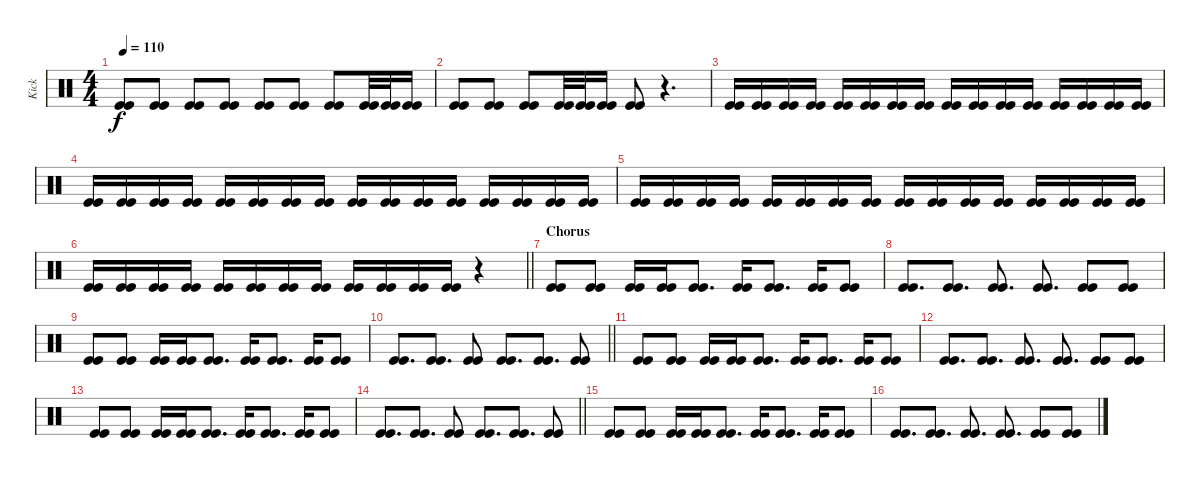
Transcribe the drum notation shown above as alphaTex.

\track ("Kick" "Kick") {instrument percussion}
\staff {score}
\articulation defaults
\ts (4 4)
\tempo 110
\clef neutral
\ks c
("Kick (hit)" "Kick (hit)").8{dy f} ("Kick (hit)" "Kick (hit)").8 ("Kick (hit)" "Kick (hit)").8 ("Kick (hit)" "Kick (hit)").8 ("Kick (hit)" "Kick (hit)").8 ("Kick (hit)" "Kick (hit)").8 ("Kick (hit)" "Kick (hit)").8 ("Kick (hit)" "Kick (hit)").32 ("Kick (hit)" "Kick (hit)").32 ("Kick (hit)" "Kick (hit)").16 |
("Kick (hit)" "Kick (hit)").8 ("Kick (hit)" "Kick (hit)").8 ("Kick (hit)" "Kick (hit)").8 ("Kick (hit)" "Kick (hit)").32 ("Kick (hit)" "Kick (hit)").32 ("Kick (hit)" "Kick (hit)").16 ("Kick (hit)" "Kick (hit)").8 r.4{d} |
("Kick (hit)" "Kick (hit)").16 ("Kick (hit)" "Kick (hit)").16 ("Kick (hit)" "Kick (hit)").16 ("Kick (hit)" "Kick (hit)").16 ("Kick (hit)" "Kick (hit)").16 ("Kick (hit)" "Kick (hit)").16 ("Kick (hit)" "Kick (hit)").16 ("Kick (hit)" "Kick (hit)").16 ("Kick (hit)" "Kick (hit)").16 ("Kick (hit)" "Kick (hit)").16 ("Kick (hit)" "Kick (hit)").16 ("Kick (hit)" "Kick (hit)").16 ("Kick (hit)" "Kick (hit)").16 ("Kick (hit)" "Kick (hit)").16 ("Kick (hit)" "Kick (hit)").16 ("Kick (hit)" "Kick (hit)").16 |
("Kick (hit)" "Kick (hit)").16 ("Kick (hit)" "Kick (hit)").16 ("Kick (hit)" "Kick (hit)").16 ("Kick (hit)" "Kick (hit)").16 ("Kick (hit)" "Kick (hit)").16 ("Kick (hit)" "Kick (hit)").16 ("Kick (hit)" "Kick (hit)").16 ("Kick (hit)" "Kick (hit)").16 ("Kick (hit)" "Kick (hit)").16 ("Kick (hit)" "Kick (hit)").16 ("Kick (hit)" "Kick (hit)").16 ("Kick (hit)" "Kick (hit)").16 ("Kick (hit)" "Kick (hit)").16 ("Kick (hit)" "Kick (hit)").16 ("Kick (hit)" "Kick (hit)").16 ("Kick (hit)" "Kick (hit)").16 |
("Kick (hit)" "Kick (hit)").16 ("Kick (hit)" "Kick (hit)").16 ("Kick (hit)" "Kick (hit)").16 ("Kick (hit)" "Kick (hit)").16 ("Kick (hit)" "Kick (hit)").16 ("Kick (hit)" "Kick (hit)").16 ("Kick (hit)" "Kick (hit)").16 ("Kick (hit)" "Kick (hit)").16 ("Kick (hit)" "Kick (hit)").16 ("Kick (hit)" "Kick (hit)").16 ("Kick (hit)" "Kick (hit)").16 ("Kick (hit)" "Kick (hit)").16 ("Kick (hit)" "Kick (hit)").16 ("Kick (hit)" "Kick (hit)").16 ("Kick (hit)" "Kick (hit)").16 ("Kick (hit)" "Kick (hit)").16 |
\barLineRight lightlight
("Kick (hit)" "Kick (hit)").16 ("Kick (hit)" "Kick (hit)").16 ("Kick (hit)" "Kick (hit)").16 ("Kick (hit)" "Kick (hit)").16 ("Kick (hit)" "Kick (hit)").16 ("Kick (hit)" "Kick (hit)").16 ("Kick (hit)" "Kick (hit)").16 ("Kick (hit)" "Kick (hit)").16 ("Kick (hit)" "Kick (hit)").16 ("Kick (hit)" "Kick (hit)").16 ("Kick (hit)" "Kick (hit)").16 ("Kick (hit)" "Kick (hit)").16 r.4 |
\section ("" "Chorus")
("Kick (hit)" "Kick (hit)").8 ("Kick (hit)" "Kick (hit)").8 ("Kick (hit)" "Kick (hit)").16 ("Kick (hit)" "Kick (hit)").16 ("Kick (hit)" "Kick (hit)").8{d} ("Kick (hit)" "Kick (hit)").16 ("Kick (hit)" "Kick (hit)").8{d} ("Kick (hit)" "Kick (hit)").16 ("Kick (hit)" "Kick (hit)").8 |
("Kick (hit)" "Kick (hit)").8{d} ("Kick (hit)" "Kick (hit)").8{d} ("Kick (hit)" "Kick (hit)").8{d} ("Kick (hit)" "Kick (hit)").8{d} ("Kick (hit)" "Kick (hit)").8 ("Kick (hit)" "Kick (hit)").8 |
("Kick (hit)" "Kick (hit)").8 ("Kick (hit)" "Kick (hit)").8 ("Kick (hit)" "Kick (hit)").16 ("Kick (hit)" "Kick (hit)").16 ("Kick (hit)" "Kick (hit)").8{d} ("Kick (hit)" "Kick (hit)").16 ("Kick (hit)" "Kick (hit)").8{d} ("Kick (hit)" "Kick (hit)").16 ("Kick (hit)" "Kick (hit)").8 |
\barLineRight lightlight
("Kick (hit)" "Kick (hit)").8{d} ("Kick (hit)" "Kick (hit)").8{d} ("Kick (hit)" "Kick (hit)").8 ("Kick (hit)" "Kick (hit)").8{d} ("Kick (hit)" "Kick (hit)").8{d} ("Kick (hit)" "Kick (hit)").8 |
("Kick (hit)" "Kick (hit)").8 ("Kick (hit)" "Kick (hit)").8 ("Kick (hit)" "Kick (hit)").16 ("Kick (hit)" "Kick (hit)").16 ("Kick (hit)" "Kick (hit)").8{d} ("Kick (hit)" "Kick (hit)").16 ("Kick (hit)" "Kick (hit)").8{d} ("Kick (hit)" "Kick (hit)").16 ("Kick (hit)" "Kick (hit)").8 |
("Kick (hit)" "Kick (hit)").8{d} ("Kick (hit)" "Kick (hit)").8{d} ("Kick (hit)" "Kick (hit)").8{d} ("Kick (hit)" "Kick (hit)").8{d} ("Kick (hit)" "Kick (hit)").8 ("Kick (hit)" "Kick (hit)").8 |
("Kick (hit)" "Kick (hit)").8 ("Kick (hit)" "Kick (hit)").8 ("Kick (hit)" "Kick (hit)").16 ("Kick (hit)" "Kick (hit)").16 ("Kick (hit)" "Kick (hit)").8{d} ("Kick (hit)" "Kick (hit)").16 ("Kick (hit)" "Kick (hit)").8{d} ("Kick (hit)" "Kick (hit)").16 ("Kick (hit)" "Kick (hit)").8 |
\barLineRight lightlight
("Kick (hit)" "Kick (hit)").8{d} ("Kick (hit)" "Kick (hit)").8{d} ("Kick (hit)" "Kick (hit)").8 ("Kick (hit)" "Kick (hit)").8{d} ("Kick (hit)" "Kick (hit)").8{d} ("Kick (hit)" "Kick (hit)").8 |
("Kick (hit)" "Kick (hit)").8 ("Kick (hit)" "Kick (hit)").8 ("Kick (hit)" "Kick (hit)").16 ("Kick (hit)" "Kick (hit)").16 ("Kick (hit)" "Kick (hit)").8{d} ("Kick (hit)" "Kick (hit)").16 ("Kick (hit)" "Kick (hit)").8{d} ("Kick (hit)" "Kick (hit)").16 ("Kick (hit)" "Kick (hit)").8 |
("Kick (hit)" "Kick (hit)").8{d} ("Kick (hit)" "Kick (hit)").8{d} ("Kick (hit)" "Kick (hit)").8{d} ("Kick (hit)" "Kick (hit)").8{d} ("Kick (hit)" "Kick (hit)").8 ("Kick (hit)" "Kick (hit)").8
